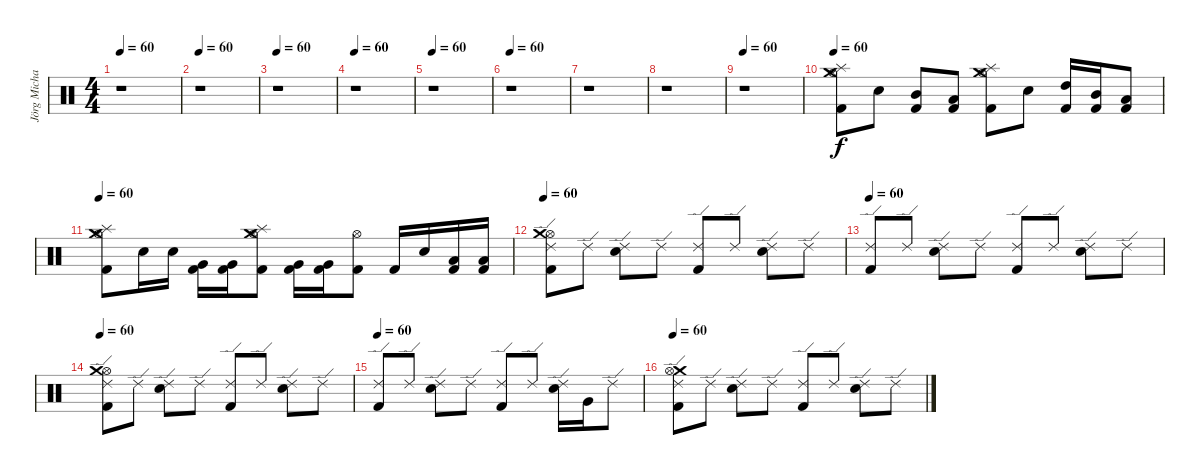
\track ("Jörg Michael (Drums)" "Jörg Micha") {instrument percussion}
\staff {score}
\articulation defaults
\ts (4 4)
\tempo 60
\clef neutral
\ks c
r.1{dy f} |
\tempo 60
r.1 |
\tempo 60
r.1 |
\tempo 60
r.1 |
\tempo 60
r.1 |
\tempo 60
r.1 |
r.1 |
r.1 |
\tempo 60
r.1 |
\tempo 60
("Crash medium (hit)" "Splash (hit)" "Hi-Hat (open)" "Kick (hit) 2").8{volume 16} "Electric Snare (hit)".8 ("Mid Tom (hit)" "Kick (hit) 2").8 ("Kick (hit) 2" "Low Tom (hit)").8 ("Hi-Hat (open)" "Crash medium (hit)" "Splash (hit)" "Kick (hit) 2").8 "Electric Snare (hit)".8 ("High Tom (hit)" "Kick (hit) 2").16 ("Mid Tom (hit)" "Kick (hit) 2").16 ("Low Tom (hit)" "Kick (hit) 2").8 |
\tempo 60
("Hi-Hat (open)" "Crash medium (hit)" "Splash (hit)" "Kick (hit) 2").8 "Electric Snare (hit)".16 "Electric Snare (hit)".16 ("Very Low Tom (hit)" "Kick (hit) 2").16 ("Very Low Tom (hit)" "Kick (hit) 2").16 ("Splash (hit)" "Crash medium (hit)" "Hi-Hat (open)" "Kick (hit) 2").8 ("Kick (hit) 2" "Very Low Tom (hit)").16 ("Kick (hit) 2" "Very Low Tom (hit)").16 ("Hi-Hat (open)" "Kick (hit) 2").8 "Kick (hit) 2".16 "Electric Snare (hit)".16 ("Kick (hit) 2" "Low Tom (hit)").16 ("Kick (hit) 2" "Low Tom (hit)").16 |
\tempo 60
("Hi-Hat (open)" "Crash medium (hit)" "Kick (hit) 2" "Ride (edge) 2").8 "Ride (edge) 2".8 ("Electric Snare (hit)" "Ride (edge) 2").8 "Ride (edge) 2".8 ("Kick (hit) 2" "Ride (edge) 2").8 "Ride (edge) 2".8 ("Electric Snare (hit)" "Ride (edge) 2").8 "Ride (edge) 2".8 |
\tempo 60
("Kick (hit) 2" "Ride (edge) 2").8 "Ride (edge) 2".8 ("Electric Snare (hit)" "Ride (edge) 2").8 "Ride (edge) 2".8 ("Kick (hit) 2" "Ride (edge) 2").8 "Ride (edge) 2".8 ("Electric Snare (hit)" "Ride (edge) 2").8 "Ride (edge) 2".8 |
\tempo 60
("Hi-Hat (open)" "Crash medium (hit)" "Kick (hit) 2" "Ride (edge) 2").8 "Ride (edge) 2".8 ("Electric Snare (hit)" "Ride (edge) 2").8 "Ride (edge) 2".8 ("Kick (hit) 2" "Ride (edge) 2").8 "Ride (edge) 2".8 ("Electric Snare (hit)" "Ride (edge) 2").8 "Ride (edge) 2".8 |
\tempo 60
("Kick (hit) 2" "Ride (edge) 2").8 "Ride (edge) 2".8 ("Electric Snare (hit)" "Ride (edge) 2").8 "Ride (edge) 2".8 ("Kick (hit) 2" "Ride (edge) 2").8 "Ride (edge) 2".8 ("Electric Snare (hit)" "Ride (edge) 2").16 "Very Low Tom (hit)".16 "Ride (edge) 2".8 |
\tempo 60
("Crash medium (hit)" "Hi-Hat (open)" "Kick (hit) 2" "Ride (edge) 2").8 "Ride (edge) 2".8 ("Electric Snare (hit)" "Ride (edge) 2").8 "Ride (edge) 2".8 ("Kick (hit) 2" "Ride (edge) 2").8 "Ride (edge) 2".8 ("Electric Snare (hit)" "Ride (edge) 2").8 "Ride (edge) 2".8
